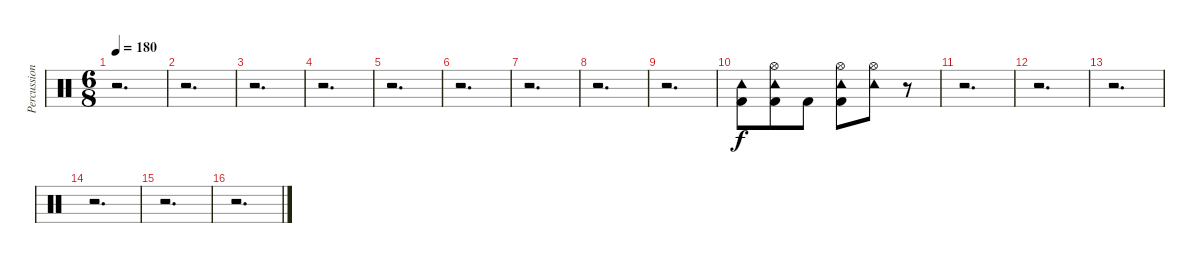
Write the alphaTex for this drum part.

\track ("Percussion" "Percussion") {instrument percussion}
\staff {score}
\articulation defaults
\ts (6 8)
\tempo 180
\clef neutral
\ks c
r.2{d dy f} |
r.2{d} |
r.2{d} |
r.2{d} |
r.2{d} |
r.2{d} |
r.2{d} |
r.2{d} |
r.2{d} |
("Kick (hit) 2" "Tambourine (hit)").8 ("Kick (hit) 2" "Hi-Hat (open)" "Tambourine (hit)").8 "Kick (hit) 2".8 ("Kick (hit) 2" "Hi-Hat (open)" "Tambourine (hit)").8 ("Hi-Hat (open)" "Tambourine (hit)").8 r.8 |
r.2{d} |
r.2{d} |
r.2{d} |
r.2{d} |
r.2{d} |
r.2{d}
